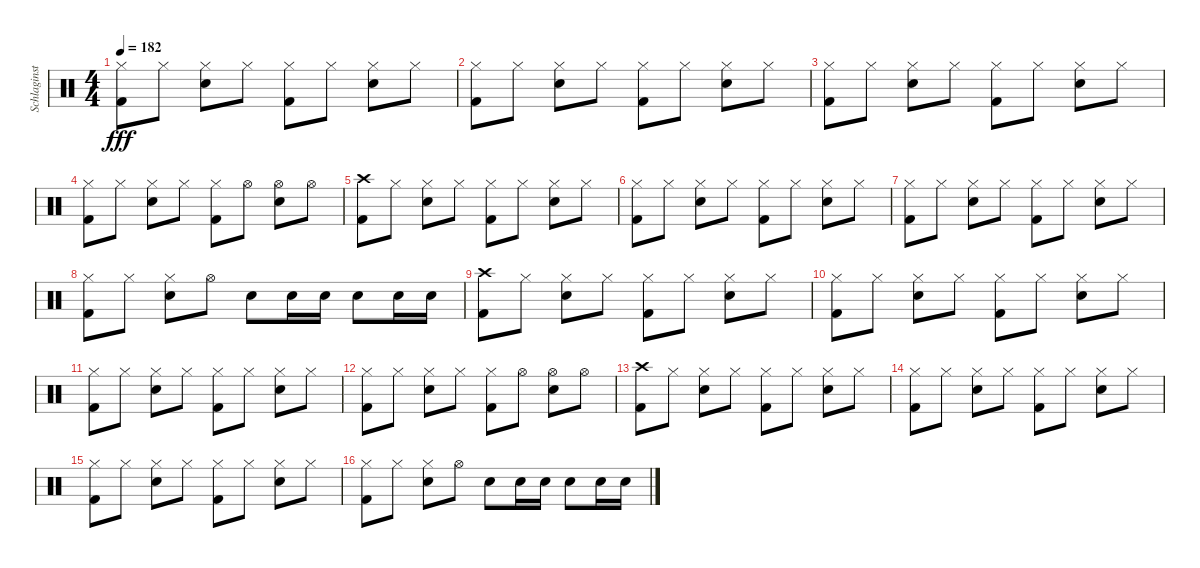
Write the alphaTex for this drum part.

\track ("Schlaginstrumente - Auswahl" "Schlaginst") {instrument percussion}
\staff {score}
\articulation defaults
\ts (4 4)
\tempo 182
\clef neutral
\ks c
("Kick (hit) 2" "Hi-Hat (closed)").8{dy fff} "Hi-Hat (closed)".8 ("Snare (hit) 2" "Hi-Hat (closed)").8 "Hi-Hat (closed)".8 ("Kick (hit) 2" "Hi-Hat (closed)").8 "Hi-Hat (closed)".8 ("Snare (hit) 2" "Hi-Hat (closed)").8 "Hi-Hat (closed)".8 |
("Kick (hit) 2" "Hi-Hat (closed)").8 "Hi-Hat (closed)".8 ("Snare (hit) 2" "Hi-Hat (closed)").8 "Hi-Hat (closed)".8 ("Kick (hit) 2" "Hi-Hat (closed)").8 "Hi-Hat (closed)".8 ("Snare (hit) 2" "Hi-Hat (closed)").8 "Hi-Hat (closed)".8 |
("Kick (hit) 2" "Hi-Hat (closed)").8 "Hi-Hat (closed)".8 ("Snare (hit) 2" "Hi-Hat (closed)").8 "Hi-Hat (closed)".8 ("Kick (hit) 2" "Hi-Hat (closed)").8 "Hi-Hat (closed)".8 ("Snare (hit) 2" "Hi-Hat (closed)").8 "Hi-Hat (closed)".8 |
("Kick (hit) 2" "Hi-Hat (closed)").8 "Hi-Hat (closed)".8 ("Snare (hit) 2" "Hi-Hat (closed)").8 "Hi-Hat (closed)".8 ("Kick (hit) 2" "Hi-Hat (closed)").8 "Hi-Hat (open)".8 ("Snare (hit) 2" "Hi-Hat (open)").8 "Hi-Hat (open)".8 |
("Kick (hit) 2" "Crash high (hit)").8 "Hi-Hat (closed)".8 ("Snare (hit) 2" "Hi-Hat (closed)").8 "Hi-Hat (closed)".8 ("Kick (hit) 2" "Hi-Hat (closed)").8 "Hi-Hat (closed)".8 ("Snare (hit) 2" "Hi-Hat (closed)").8 "Hi-Hat (closed)".8 |
("Kick (hit) 2" "Hi-Hat (closed)").8 "Hi-Hat (closed)".8 ("Snare (hit) 2" "Hi-Hat (closed)").8 "Hi-Hat (closed)".8 ("Kick (hit) 2" "Hi-Hat (closed)").8 "Hi-Hat (closed)".8 ("Snare (hit) 2" "Hi-Hat (closed)").8 "Hi-Hat (closed)".8 |
("Kick (hit) 2" "Hi-Hat (closed)").8 "Hi-Hat (closed)".8 ("Snare (hit) 2" "Hi-Hat (closed)").8 "Hi-Hat (closed)".8 ("Kick (hit) 2" "Hi-Hat (closed)").8 "Hi-Hat (closed)".8 ("Snare (hit) 2" "Hi-Hat (closed)").8 "Hi-Hat (closed)".8 |
("Kick (hit) 2" "Hi-Hat (closed)").8 "Hi-Hat (closed)".8 ("Snare (hit) 2" "Hi-Hat (closed)").8 "Hi-Hat (open)".8 "Snare (hit) 2".8 "Snare (hit) 2".16 "Snare (hit) 2".16 "Snare (hit) 2".8 "Snare (hit) 2".16 "Snare (hit) 2".16 |
("Kick (hit) 2" "Crash high (hit)").8 "Hi-Hat (closed)".8 ("Snare (hit) 2" "Hi-Hat (closed)").8 "Hi-Hat (closed)".8 ("Kick (hit) 2" "Hi-Hat (closed)").8 "Hi-Hat (closed)".8 ("Snare (hit) 2" "Hi-Hat (closed)").8 "Hi-Hat (closed)".8 |
("Kick (hit) 2" "Hi-Hat (closed)").8 "Hi-Hat (closed)".8 ("Snare (hit) 2" "Hi-Hat (closed)").8 "Hi-Hat (closed)".8 ("Kick (hit) 2" "Hi-Hat (closed)").8 "Hi-Hat (closed)".8 ("Snare (hit) 2" "Hi-Hat (closed)").8 "Hi-Hat (closed)".8 |
("Kick (hit) 2" "Hi-Hat (closed)").8 "Hi-Hat (closed)".8 ("Snare (hit) 2" "Hi-Hat (closed)").8 "Hi-Hat (closed)".8 ("Kick (hit) 2" "Hi-Hat (closed)").8 "Hi-Hat (closed)".8 ("Snare (hit) 2" "Hi-Hat (closed)").8 "Hi-Hat (closed)".8 |
("Kick (hit) 2" "Hi-Hat (closed)").8 "Hi-Hat (closed)".8 ("Snare (hit) 2" "Hi-Hat (closed)").8 "Hi-Hat (closed)".8 ("Kick (hit) 2" "Hi-Hat (closed)").8 "Hi-Hat (open)".8 ("Snare (hit) 2" "Hi-Hat (open)").8 "Hi-Hat (open)".8 |
("Kick (hit) 2" "Crash high (hit)").8 "Hi-Hat (closed)".8 ("Snare (hit) 2" "Hi-Hat (closed)").8 "Hi-Hat (closed)".8 ("Kick (hit) 2" "Hi-Hat (closed)").8 "Hi-Hat (closed)".8 ("Snare (hit) 2" "Hi-Hat (closed)").8 "Hi-Hat (closed)".8 |
("Kick (hit) 2" "Hi-Hat (closed)").8 "Hi-Hat (closed)".8 ("Snare (hit) 2" "Hi-Hat (closed)").8 "Hi-Hat (closed)".8 ("Kick (hit) 2" "Hi-Hat (closed)").8 "Hi-Hat (closed)".8 ("Snare (hit) 2" "Hi-Hat (closed)").8 "Hi-Hat (closed)".8 |
("Kick (hit) 2" "Hi-Hat (closed)").8 "Hi-Hat (closed)".8 ("Snare (hit) 2" "Hi-Hat (closed)").8 "Hi-Hat (closed)".8 ("Kick (hit) 2" "Hi-Hat (closed)").8 "Hi-Hat (closed)".8 ("Snare (hit) 2" "Hi-Hat (closed)").8 "Hi-Hat (closed)".8 |
("Kick (hit) 2" "Hi-Hat (closed)").8 "Hi-Hat (closed)".8 ("Snare (hit) 2" "Hi-Hat (closed)").8 "Hi-Hat (open)".8 "Snare (hit) 2".8 "Snare (hit) 2".16 "Snare (hit) 2".16 "Snare (hit) 2".8 "Snare (hit) 2".16 "Snare (hit) 2".16
